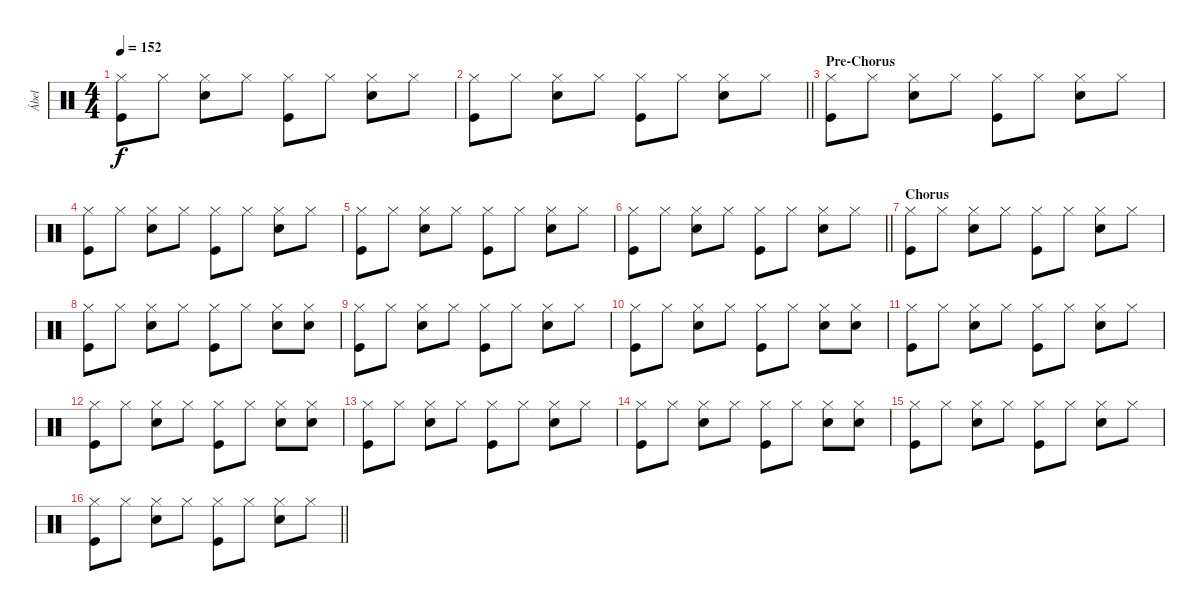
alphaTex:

\track ("Ábel" "Ábel") {instrument percussion}
\staff {score}
\articulation defaults
\ts (4 4)
\tempo 152
\clef neutral
\ks c
("Hi-Hat (closed)" "Kick (hit)").8{dy f} "Hi-Hat (closed)".8 ("Hi-Hat (closed)" "Snare (hit) 2").8 "Hi-Hat (closed)".8 ("Hi-Hat (closed)" "Kick (hit)").8 "Hi-Hat (closed)".8 ("Hi-Hat (closed)" "Snare (hit) 2").8 "Hi-Hat (closed)".8 |
\barLineRight lightlight
("Hi-Hat (closed)" "Kick (hit)").8 "Hi-Hat (closed)".8 ("Hi-Hat (closed)" "Snare (hit) 2").8 "Hi-Hat (closed)".8 ("Hi-Hat (closed)" "Kick (hit)").8 "Hi-Hat (closed)".8 ("Hi-Hat (closed)" "Snare (hit) 2").8 "Hi-Hat (closed)".8 |
\section ("" "Pre-Chorus")
("Hi-Hat (closed)" "Kick (hit)").8 "Hi-Hat (closed)".8 ("Hi-Hat (closed)" "Snare (hit) 2").8 "Hi-Hat (closed)".8 ("Hi-Hat (closed)" "Kick (hit)").8 "Hi-Hat (closed)".8 ("Hi-Hat (closed)" "Snare (hit) 2").8 "Hi-Hat (closed)".8 |
("Hi-Hat (closed)" "Kick (hit)").8 "Hi-Hat (closed)".8 ("Hi-Hat (closed)" "Snare (hit) 2").8 "Hi-Hat (closed)".8 ("Hi-Hat (closed)" "Kick (hit)").8 "Hi-Hat (closed)".8 ("Hi-Hat (closed)" "Snare (hit) 2").8 "Hi-Hat (closed)".8 |
("Hi-Hat (closed)" "Kick (hit)").8 "Hi-Hat (closed)".8 ("Hi-Hat (closed)" "Snare (hit) 2").8 "Hi-Hat (closed)".8 ("Hi-Hat (closed)" "Kick (hit)").8 "Hi-Hat (closed)".8 ("Hi-Hat (closed)" "Snare (hit) 2").8 "Hi-Hat (closed)".8 |
\barLineRight lightlight
("Hi-Hat (closed)" "Kick (hit)").8 "Hi-Hat (closed)".8 ("Hi-Hat (closed)" "Snare (hit) 2").8 "Hi-Hat (closed)".8 ("Hi-Hat (closed)" "Kick (hit)").8 "Hi-Hat (closed)".8 ("Hi-Hat (closed)" "Snare (hit) 2").8 "Hi-Hat (closed)".8 |
\section ("" "Chorus")
("Hi-Hat (closed)" "Kick (hit)").8 "Hi-Hat (closed)".8 ("Hi-Hat (closed)" "Snare (hit) 2").8 "Hi-Hat (closed)".8 ("Hi-Hat (closed)" "Kick (hit)").8 "Hi-Hat (closed)".8 ("Hi-Hat (closed)" "Snare (hit) 2").8 "Hi-Hat (closed)".8 |
("Hi-Hat (closed)" "Kick (hit)").8 "Hi-Hat (closed)".8 ("Hi-Hat (closed)" "Snare (hit) 2").8 "Hi-Hat (closed)".8 ("Hi-Hat (closed)" "Kick (hit)").8 "Hi-Hat (closed)".8 ("Hi-Hat (closed)" "Snare (hit) 2").8 ("Hi-Hat (closed)" "Snare (hit) 2").8 |
("Hi-Hat (closed)" "Kick (hit)").8 "Hi-Hat (closed)".8 ("Hi-Hat (closed)" "Snare (hit) 2").8 "Hi-Hat (closed)".8 ("Hi-Hat (closed)" "Kick (hit)").8 "Hi-Hat (closed)".8 ("Hi-Hat (closed)" "Snare (hit) 2").8 "Hi-Hat (closed)".8 |
("Hi-Hat (closed)" "Kick (hit)").8 "Hi-Hat (closed)".8 ("Hi-Hat (closed)" "Snare (hit) 2").8 "Hi-Hat (closed)".8 ("Hi-Hat (closed)" "Kick (hit)").8 "Hi-Hat (closed)".8 ("Hi-Hat (closed)" "Snare (hit) 2").8 ("Hi-Hat (closed)" "Snare (hit) 2").8 |
("Hi-Hat (closed)" "Kick (hit)").8 "Hi-Hat (closed)".8 ("Hi-Hat (closed)" "Snare (hit) 2").8 "Hi-Hat (closed)".8 ("Hi-Hat (closed)" "Kick (hit)").8 "Hi-Hat (closed)".8 ("Hi-Hat (closed)" "Snare (hit) 2").8 "Hi-Hat (closed)".8 |
("Hi-Hat (closed)" "Kick (hit)").8 "Hi-Hat (closed)".8 ("Hi-Hat (closed)" "Snare (hit) 2").8 "Hi-Hat (closed)".8 ("Hi-Hat (closed)" "Kick (hit)").8 "Hi-Hat (closed)".8 ("Hi-Hat (closed)" "Snare (hit) 2").8 ("Hi-Hat (closed)" "Snare (hit) 2").8 |
("Hi-Hat (closed)" "Kick (hit)").8 "Hi-Hat (closed)".8 ("Hi-Hat (closed)" "Snare (hit) 2").8 "Hi-Hat (closed)".8 ("Hi-Hat (closed)" "Kick (hit)").8 "Hi-Hat (closed)".8 ("Hi-Hat (closed)" "Snare (hit) 2").8 "Hi-Hat (closed)".8 |
("Hi-Hat (closed)" "Kick (hit)").8 "Hi-Hat (closed)".8 ("Hi-Hat (closed)" "Snare (hit) 2").8 "Hi-Hat (closed)".8 ("Hi-Hat (closed)" "Kick (hit)").8 "Hi-Hat (closed)".8 ("Hi-Hat (closed)" "Snare (hit) 2").8 ("Hi-Hat (closed)" "Snare (hit) 2").8 |
("Hi-Hat (closed)" "Kick (hit)").8 "Hi-Hat (closed)".8 ("Hi-Hat (closed)" "Snare (hit) 2").8 "Hi-Hat (closed)".8 ("Hi-Hat (closed)" "Kick (hit)").8 "Hi-Hat (closed)".8 ("Hi-Hat (closed)" "Snare (hit) 2").8 "Hi-Hat (closed)".8 |
\barLineRight lightlight
("Hi-Hat (closed)" "Kick (hit)").8 "Hi-Hat (closed)".8 ("Hi-Hat (closed)" "Snare (hit) 2").8 "Hi-Hat (closed)".8 ("Hi-Hat (closed)" "Kick (hit)").8 "Hi-Hat (closed)".8 ("Hi-Hat (closed)" "Snare (hit) 2").8 "Hi-Hat (closed)".8
